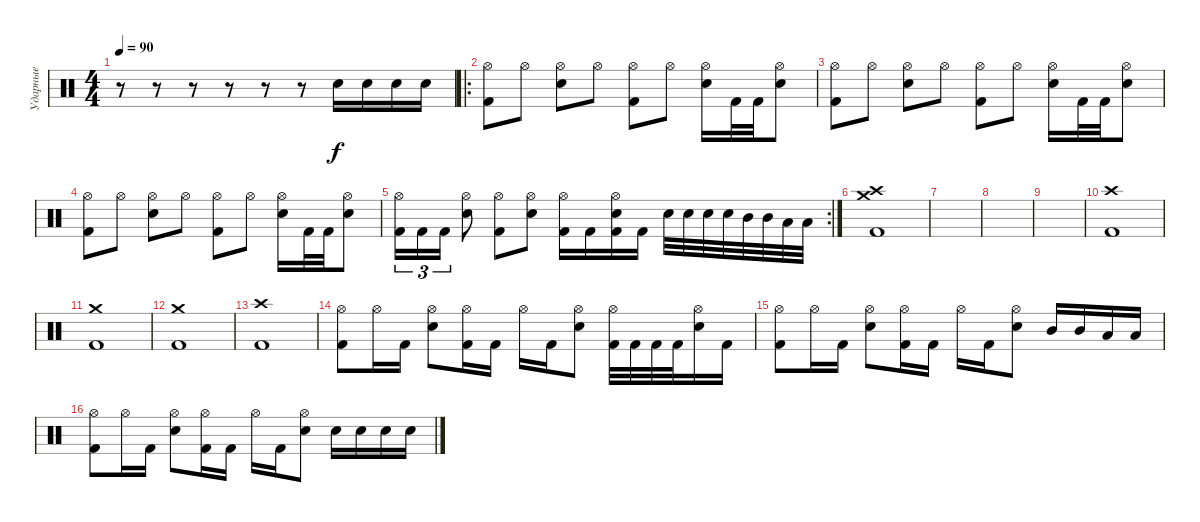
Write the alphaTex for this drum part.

\track ("Ударные" "Ударные") {instrument percussion}
\staff {score}
\articulation defaults
\ts (4 4)
\tempo 90
\clef neutral
\ks c
r.8{dy f} r.8 r.8 r.8 r.8 r.8 "Electric Snare (hit)".16 "Electric Snare (hit)".16 "Electric Snare (hit)".16 "Electric Snare (hit)".16 |
\ro
("Hi-Hat (open)" "Kick (hit) 2").8 "Hi-Hat (open)".8 ("Hi-Hat (open)" "Electric Snare (hit)").8 "Hi-Hat (open)".8 ("Hi-Hat (open)" "Kick (hit) 2").8 "Hi-Hat (open)".8 ("Hi-Hat (open)" "Electric Snare (hit)").16 "Kick (hit) 2".32 "Kick (hit) 2".32 ("Hi-Hat (open)" "Electric Snare (hit)").8 |
("Hi-Hat (open)" "Kick (hit) 2").8 "Hi-Hat (open)".8 ("Hi-Hat (open)" "Electric Snare (hit)").8 "Hi-Hat (open)".8 ("Hi-Hat (open)" "Kick (hit) 2").8 "Hi-Hat (open)".8 ("Hi-Hat (open)" "Electric Snare (hit)").16 "Kick (hit) 2".32 "Kick (hit) 2".32 ("Hi-Hat (open)" "Electric Snare (hit)").8 |
("Hi-Hat (open)" "Kick (hit) 2").8 "Hi-Hat (open)".8 ("Hi-Hat (open)" "Electric Snare (hit)").8 "Hi-Hat (open)".8 ("Hi-Hat (open)" "Kick (hit) 2").8 "Hi-Hat (open)".8 ("Hi-Hat (open)" "Electric Snare (hit)").16 "Kick (hit) 2".32 "Kick (hit) 2".32 ("Hi-Hat (open)" "Electric Snare (hit)").8 |
\rc 2
("Kick (hit) 2" "Hi-Hat (open)").16{tu (3 2)} "Kick (hit) 2".16{tu (3 2)} "Kick (hit) 2".16{tu (3 2)} ("Electric Snare (hit)" "Hi-Hat (open)").8 ("Kick (hit) 2" "Hi-Hat (open)").8 ("Electric Snare (hit)" "Hi-Hat (open)").8 ("Kick (hit) 2" "Hi-Hat (open)").16 "Kick (hit) 2".16 ("Kick (hit) 2" "Hi-Hat (open)" "Electric Snare (hit)").16 "Kick (hit) 2".16 "Electric Snare (hit)".32 "Electric Snare (hit)".32 "Electric Snare (hit)".32 "Electric Snare (hit)".32 "Mid Tom (hit)".32 "Mid Tom (hit)".32 "Low Tom (hit)".32 "Low Tom (hit)".32 |
("Kick (hit) 2" "Crash high (hit)" "Crash medium (hit)").1 |
|
|
|
("Kick (hit) 2" "Crash high (hit)").1 |
("Kick (hit) 2" "Crash medium (hit)").1 |
("Kick (hit) 2" "Crash medium (hit)").1 |
("Kick (hit) 2" "Crash high (hit)").1 |
("Kick (hit) 2" "Hi-Hat (open)").8 "Hi-Hat (open)".16 "Kick (hit) 2".16 ("Electric Snare (hit)" "Hi-Hat (open)").8 ("Hi-Hat (open)" "Kick (hit) 2").16 "Kick (hit) 2".16 "Hi-Hat (open)".16 "Kick (hit) 2".16 ("Hi-Hat (open)" "Electric Snare (hit)").8 ("Kick (hit) 2" "Hi-Hat (open)").32 "Kick (hit) 2".32 "Kick (hit) 2".32 "Kick (hit) 2".32 ("Electric Snare (hit)" "Hi-Hat (open)").16 "Kick (hit) 2".16 |
("Kick (hit) 2" "Hi-Hat (open)").8 "Hi-Hat (open)".16 "Kick (hit) 2".16 ("Electric Snare (hit)" "Hi-Hat (open)").8 ("Hi-Hat (open)" "Kick (hit) 2").16 "Kick (hit) 2".16 "Hi-Hat (open)".16 "Kick (hit) 2".16 ("Hi-Hat (open)" "Electric Snare (hit)").8 "Mid Tom (hit)".16 "Mid Tom (hit)".16 "Low Tom (hit)".16 "Low Tom (hit)".16 |
("Kick (hit) 2" "Hi-Hat (open)").8 "Hi-Hat (open)".16 "Kick (hit) 2".16 ("Electric Snare (hit)" "Hi-Hat (open)").8 ("Hi-Hat (open)" "Kick (hit) 2").16 "Kick (hit) 2".16 "Hi-Hat (open)".16 "Kick (hit) 2".16 ("Hi-Hat (open)" "Electric Snare (hit)").8 "Electric Snare (hit)".16 "Electric Snare (hit)".16 "Electric Snare (hit)".16 "Electric Snare (hit)".16
